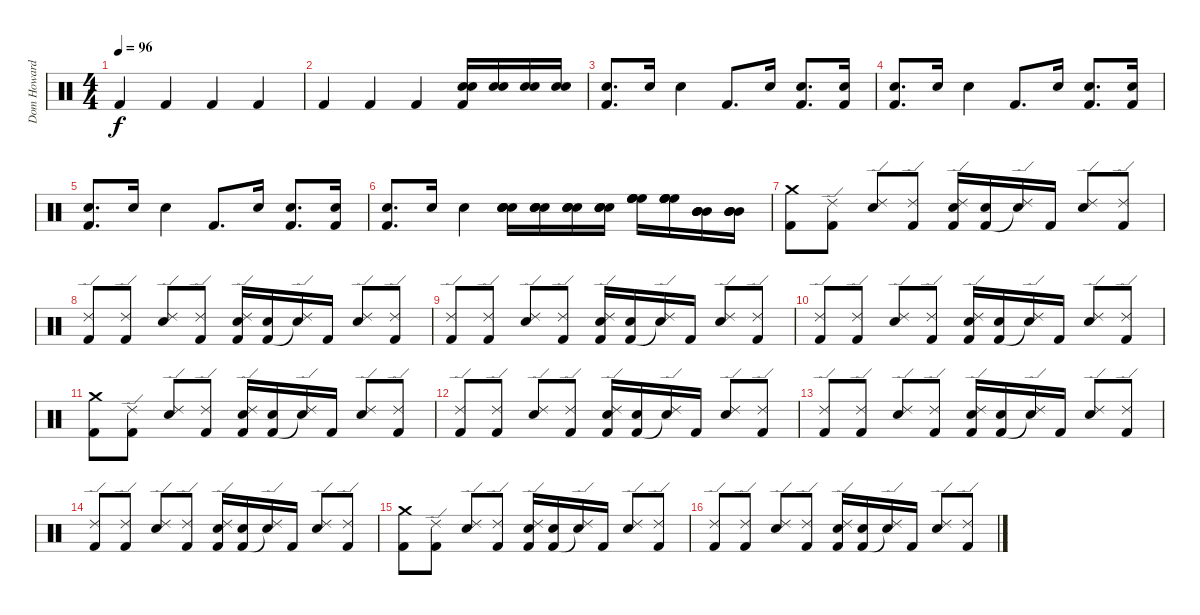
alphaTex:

\track ("Dom Howard" "Dom Howard") {instrument percussion}
\staff {score}
\articulation defaults
\ts (4 4)
\tempo 96
\clef neutral
\ks c "Kick (hit) 2".4{dy f} "Kick (hit) 2".4 "Kick (hit) 2".4 "Kick (hit) 2".4
|
"Kick (hit) 2".4 "Kick (hit) 2".4 "Kick (hit) 2".4 ("Electric Snare (hit)" "Snare (hit) 2" "Kick (hit) 2").16 ("Electric Snare (hit)" "Snare (hit) 2").16 ("Electric Snare (hit)" "Snare (hit) 2").16 ("Electric Snare (hit)" "Snare (hit) 2").16 |
("Electric Snare (hit)" "Kick (hit) 2").8{d} "Electric Snare (hit)".16 "Electric Snare (hit)".4 "Kick (hit) 2".8{d} "Electric Snare (hit)".16 ("Electric Snare (hit)" "Kick (hit) 2").8{d} ("Electric Snare (hit)" "Kick (hit) 2").16 |
("Electric Snare (hit)" "Kick (hit) 2").8{d} "Electric Snare (hit)".16 "Electric Snare (hit)".4 "Kick (hit) 2".8{d} "Electric Snare (hit)".16 ("Electric Snare (hit)" "Kick (hit) 2").8{d} ("Electric Snare (hit)" "Kick (hit) 2").16 |
("Electric Snare (hit)" "Kick (hit) 2").8{d} "Electric Snare (hit)".16 "Electric Snare (hit)".4 "Kick (hit) 2".8{d} "Electric Snare (hit)".16 ("Electric Snare (hit)" "Kick (hit) 2").8{d} ("Electric Snare (hit)" "Kick (hit) 2").16 |
("Electric Snare (hit)" "Kick (hit) 2").8{d} "Electric Snare (hit)".16 "Electric Snare (hit)".4 ("Snare (hit) 2" "Snare (hit) 2" "Electric Snare (hit)" "Electric Snare (hit)").16 ("Snare (hit) 2" "Snare (hit) 2" "Electric Snare (hit)" "Electric Snare (hit)").16 ("Snare (hit) 2" "Snare (hit) 2" "Electric Snare (hit)" "Electric Snare (hit)").16 ("Snare (hit) 2" "Snare (hit) 2" "Electric Snare (hit)" "Electric Snare (hit)").16 ("High Floor Tom (hit)" "High Floor Tom (hit)" "High Floor Tom (hit)" "High Floor Tom (hit)").16 ("High Floor Tom (hit)" "High Floor Tom (hit)" "High Floor Tom (hit)" "High Floor Tom (hit)").16 ("Mid Tom (hit)" "Mid Tom (hit)" "Mid Tom (hit)" "Mid Tom (hit)").16 ("Mid Tom (hit)" "Mid Tom (hit)" "Mid Tom (hit)" "Mid Tom (hit)").16 |
("Crash medium (hit)" "Kick (hit) 2").8 ("Ride (edge) 2" "Kick (hit) 2").8 ("Ride (edge) 2" "Electric Snare (hit)").8 ("Ride (edge) 2" "Kick (hit) 2").8 ("Ride (edge) 2" "Electric Snare (hit)" "Kick (hit) 2").16 ("Electric Snare (hit)" "Kick (hit) 2").16 ("Ride (edge) 2" "Snare (hit)"{t}).16 "Kick (hit) 2".16 ("Ride (edge) 2" "Electric Snare (hit)").8 ("Ride (edge) 2" "Kick (hit) 2").8 |
("Ride (edge) 2" "Kick (hit) 2").8 ("Ride (edge) 2" "Kick (hit) 2").8 ("Ride (edge) 2" "Electric Snare (hit)").8 ("Ride (edge) 2" "Kick (hit) 2").8 ("Ride (edge) 2" "Electric Snare (hit)" "Kick (hit) 2").16 ("Electric Snare (hit)" "Kick (hit) 2").16 ("Ride (edge) 2" "Snare (hit)"{t}).16 "Kick (hit) 2".16 ("Ride (edge) 2" "Electric Snare (hit)").8 ("Ride (edge) 2" "Kick (hit) 2").8 |
("Ride (edge) 2" "Kick (hit) 2").8 ("Ride (edge) 2" "Kick (hit) 2").8 ("Ride (edge) 2" "Electric Snare (hit)").8 ("Ride (edge) 2" "Kick (hit) 2").8 ("Ride (edge) 2" "Electric Snare (hit)" "Kick (hit) 2").16 ("Electric Snare (hit)" "Kick (hit) 2").16 ("Ride (edge) 2" "Snare (hit)"{t}).16 "Kick (hit) 2".16 ("Ride (edge) 2" "Electric Snare (hit)").8 ("Ride (edge) 2" "Kick (hit) 2").8 |
("Ride (edge) 2" "Kick (hit) 2").8 ("Ride (edge) 2" "Kick (hit) 2").8 ("Ride (edge) 2" "Electric Snare (hit)").8 ("Ride (edge) 2" "Kick (hit) 2").8 ("Ride (edge) 2" "Electric Snare (hit)" "Kick (hit) 2").16 ("Electric Snare (hit)" "Kick (hit) 2").16 ("Ride (edge) 2" "Snare (hit)"{t}).16 "Kick (hit) 2".16 ("Ride (edge) 2" "Electric Snare (hit)").8 ("Ride (edge) 2" "Kick (hit) 2").8 |
("Crash medium (hit)" "Kick (hit) 2").8 ("Ride (edge) 2" "Kick (hit) 2").8 ("Ride (edge) 2" "Electric Snare (hit)").8 ("Ride (edge) 2" "Kick (hit) 2").8 ("Ride (edge) 2" "Electric Snare (hit)" "Kick (hit) 2").16 ("Electric Snare (hit)" "Kick (hit) 2").16 ("Ride (edge) 2" "Snare (hit)"{t}).16 "Kick (hit) 2".16 ("Ride (edge) 2" "Electric Snare (hit)").8 ("Ride (edge) 2" "Kick (hit) 2").8 |
("Ride (edge) 2" "Kick (hit) 2").8 ("Ride (edge) 2" "Kick (hit) 2").8 ("Ride (edge) 2" "Electric Snare (hit)").8 ("Ride (edge) 2" "Kick (hit) 2").8 ("Ride (edge) 2" "Electric Snare (hit)" "Kick (hit) 2").16 ("Electric Snare (hit)" "Kick (hit) 2").16 ("Ride (edge) 2" "Snare (hit)"{t}).16 "Kick (hit) 2".16 ("Ride (edge) 2" "Electric Snare (hit)").8 ("Ride (edge) 2" "Kick (hit) 2").8 |
("Ride (edge) 2" "Kick (hit) 2").8 ("Ride (edge) 2" "Kick (hit) 2").8 ("Ride (edge) 2" "Electric Snare (hit)").8 ("Ride (edge) 2" "Kick (hit) 2").8 ("Ride (edge) 2" "Electric Snare (hit)" "Kick (hit) 2").16 ("Electric Snare (hit)" "Kick (hit) 2").16 ("Ride (edge) 2" "Snare (hit)"{t}).16 "Kick (hit) 2".16 ("Ride (edge) 2" "Electric Snare (hit)").8 ("Ride (edge) 2" "Kick (hit) 2").8 |
("Ride (edge) 2" "Kick (hit) 2").8 ("Ride (edge) 2" "Kick (hit) 2").8 ("Ride (edge) 2" "Electric Snare (hit)").8 ("Ride (edge) 2" "Kick (hit) 2").8 ("Ride (edge) 2" "Electric Snare (hit)" "Kick (hit) 2").16 ("Electric Snare (hit)" "Kick (hit) 2").16 ("Ride (edge) 2" "Snare (hit)"{t}).16 "Kick (hit) 2".16 ("Ride (edge) 2" "Electric Snare (hit)").8 ("Ride (edge) 2" "Kick (hit) 2").8 |
("Crash medium (hit)" "Kick (hit) 2").8 ("Ride (edge) 2" "Kick (hit) 2").8 ("Ride (edge) 2" "Electric Snare (hit)").8 ("Ride (edge) 2" "Kick (hit) 2").8 ("Ride (edge) 2" "Electric Snare (hit)" "Kick (hit) 2").16 ("Electric Snare (hit)" "Kick (hit) 2").16 ("Ride (edge) 2" "Snare (hit)"{t}).16 "Kick (hit) 2".16 ("Ride (edge) 2" "Electric Snare (hit)").8 ("Ride (edge) 2" "Kick (hit) 2").8 |
("Ride (edge) 2" "Kick (hit) 2").8 ("Ride (edge) 2" "Kick (hit) 2").8 ("Ride (edge) 2" "Electric Snare (hit)").8 ("Ride (edge) 2" "Kick (hit) 2").8 ("Ride (edge) 2" "Electric Snare (hit)" "Kick (hit) 2").16 ("Electric Snare (hit)" "Kick (hit) 2").16 ("Ride (edge) 2" "Snare (hit)"{t}).16 "Kick (hit) 2".16 ("Ride (edge) 2" "Electric Snare (hit)").8 ("Ride (edge) 2" "Kick (hit) 2").8
